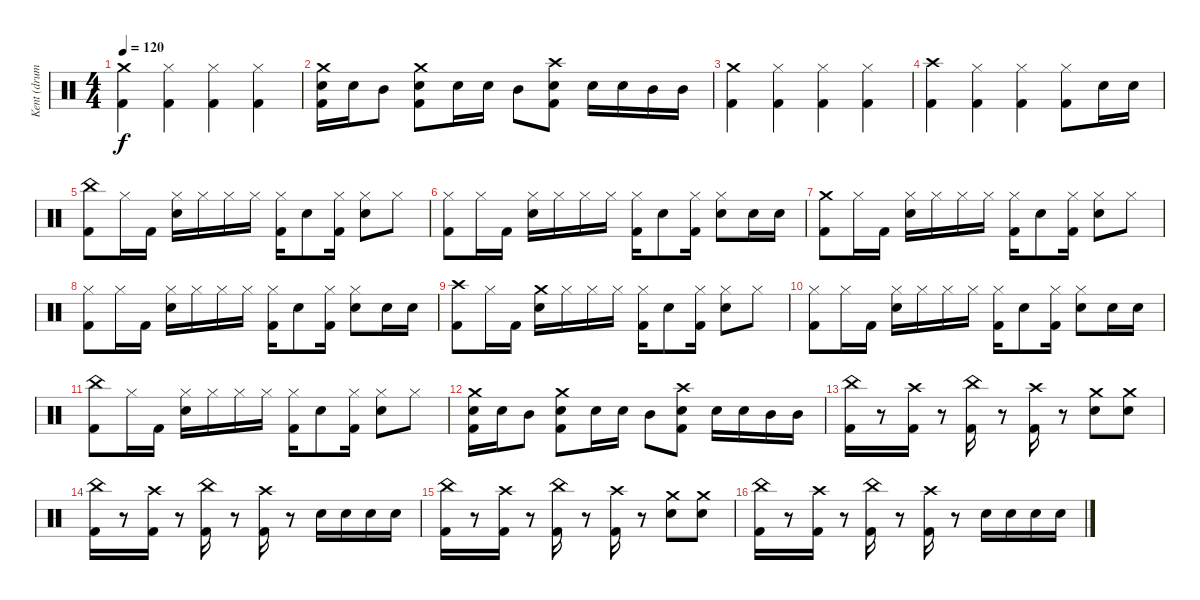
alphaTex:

\track ("Kent (drums)" "Kent (drum") {instrument percussion}
\staff {score}
\articulation defaults
\ts (4 4)
\tempo 120
\clef neutral
\ks c
("Crash medium (hit)" "Kick (hit) 2").4{dy f} ("Hi-Hat (closed)" "Kick (hit) 2").4 ("Hi-Hat (closed)" "Kick (hit) 2").4 ("Hi-Hat (closed)" "Kick (hit) 2").4 |
("Crash medium (hit)" "Snare (hit) 2" "Kick (hit) 2").16 "Snare (hit) 2".16 "Mid Tom (hit)".8 ("Crash medium (hit)" "Snare (hit) 2" "Kick (hit) 2").8 "Snare (hit) 2".16 "Snare (hit) 2".16 "Mid Tom (hit)".8 ("Crash high (hit)" "Snare (hit) 2" "Kick (hit) 2").8 "Snare (hit) 2".16 "Snare (hit) 2".16 "Mid Tom (hit)".16 "Mid Tom (hit)".16 |
("Crash medium (hit)" "Kick (hit) 2").4 ("Hi-Hat (closed)" "Kick (hit) 2").4 ("Hi-Hat (closed)" "Kick (hit) 2").4 ("Hi-Hat (closed)" "Kick (hit) 2").4 |
("Crash high (hit)" "Kick (hit) 2").4 ("Hi-Hat (closed)" "Kick (hit) 2").4 ("Hi-Hat (closed)" "Kick (hit) 2").4 ("Hi-Hat (closed)" "Kick (hit) 2").8 "Snare (hit) 2".16 "Snare (hit) 2".16 |
("China (hit)" "Kick (hit) 2").8 "Hi-Hat (closed)".16 "Kick (hit) 2".16 ("Hi-Hat (closed)" "Snare (hit) 2").16 "Hi-Hat (closed)".16 "Hi-Hat (closed)".16 "Hi-Hat (closed)".16 ("Hi-Hat (closed)" "Kick (hit) 2").16 "Snare (hit) 2".8 ("Hi-Hat (closed)" "Kick (hit) 2").16 ("Hi-Hat (closed)" "Snare (hit) 2").8 "Hi-Hat (closed)".8 |
("Hi-Hat (closed)" "Kick (hit) 2").8 "Hi-Hat (closed)".16 "Kick (hit) 2".16 ("Hi-Hat (closed)" "Snare (hit) 2").16 "Hi-Hat (closed)".16 "Hi-Hat (closed)".16 "Hi-Hat (closed)".16 ("Hi-Hat (closed)" "Kick (hit) 2").16 "Snare (hit) 2".8 ("Hi-Hat (closed)" "Kick (hit) 2").16 ("Hi-Hat (closed)" "Snare (hit) 2").8 "Snare (hit) 2".16 "Snare (hit) 2".16 |
("Crash medium (hit)" "Kick (hit) 2").8 "Hi-Hat (closed)".16 "Kick (hit) 2".16 ("Hi-Hat (closed)" "Snare (hit) 2").16 "Hi-Hat (closed)".16 "Hi-Hat (closed)".16 "Hi-Hat (closed)".16 ("Hi-Hat (closed)" "Kick (hit) 2").16 "Snare (hit) 2".8 ("Hi-Hat (closed)" "Kick (hit) 2").16 ("Hi-Hat (closed)" "Snare (hit) 2").8 "Hi-Hat (closed)".8 |
("Hi-Hat (closed)" "Kick (hit) 2").8 "Hi-Hat (closed)".16 "Kick (hit) 2".16 ("Hi-Hat (closed)" "Snare (hit) 2").16 "Hi-Hat (closed)".16 "Hi-Hat (closed)".16 "Hi-Hat (closed)".16 ("Hi-Hat (closed)" "Kick (hit) 2").16 "Snare (hit) 2".8 ("Hi-Hat (closed)" "Kick (hit) 2").16 ("Hi-Hat (closed)" "Snare (hit) 2").8 "Snare (hit) 2".16 "Snare (hit) 2".16 |
("Crash high (hit)" "Kick (hit) 2").8 "Hi-Hat (closed)".16 "Kick (hit) 2".16 ("Crash medium (hit)" "Snare (hit) 2").16 "Hi-Hat (closed)".16 "Hi-Hat (closed)".16 "Hi-Hat (closed)".16 ("Hi-Hat (closed)" "Kick (hit) 2").16 "Snare (hit) 2".8 ("Hi-Hat (closed)" "Kick (hit) 2").16 ("Hi-Hat (closed)" "Snare (hit) 2").8 "Hi-Hat (closed)".8 |
("Hi-Hat (closed)" "Kick (hit) 2").8 "Hi-Hat (closed)".16 "Kick (hit) 2".16 ("Hi-Hat (closed)" "Snare (hit) 2").16 "Hi-Hat (closed)".16 "Hi-Hat (closed)".16 "Hi-Hat (closed)".16 ("Hi-Hat (closed)" "Kick (hit) 2").16 "Snare (hit) 2".8 ("Hi-Hat (closed)" "Kick (hit) 2").16 ("Hi-Hat (closed)" "Snare (hit) 2").8 "Snare (hit) 2".16 "Snare (hit) 2".16 |
("China (hit)" "Kick (hit) 2").8 "Hi-Hat (closed)".16 "Kick (hit) 2".16 ("Hi-Hat (closed)" "Snare (hit) 2").16 "Hi-Hat (closed)".16 "Hi-Hat (closed)".16 "Hi-Hat (closed)".16 ("Hi-Hat (closed)" "Kick (hit) 2").16 "Snare (hit) 2".8 ("Hi-Hat (closed)" "Kick (hit) 2").16 ("Hi-Hat (closed)" "Snare (hit) 2").8 "Hi-Hat (closed)".8 |
("Crash medium (hit)" "Snare (hit) 2" "Kick (hit) 2").16 "Snare (hit) 2".16 "Mid Tom (hit)".8 ("Crash medium (hit)" "Snare (hit) 2" "Kick (hit) 2").8 "Snare (hit) 2".16 "Snare (hit) 2".16 "Mid Tom (hit)".8 ("Crash high (hit)" "Snare (hit) 2" "Kick (hit) 2").8 "Snare (hit) 2".16 "Snare (hit) 2".16 "Mid Tom (hit)".16 "Mid Tom (hit)".16 |
("China (hit)" "Kick (hit) 2").16 r.8 ("Crash high (hit)" "Kick (hit) 2").16 r.8 ("China (hit)" "Kick (hit) 2").16 r.8 ("Crash high (hit)" "Kick (hit) 2").16 r.8 ("Crash medium (hit)" "Snare (hit) 2").8 ("Crash medium (hit)" "Snare (hit) 2").8 |
("China (hit)" "Kick (hit) 2").16 r.8 ("Crash high (hit)" "Kick (hit) 2").16 r.8 ("China (hit)" "Kick (hit) 2").16 r.8 ("Crash high (hit)" "Kick (hit) 2").16 r.8 "Snare (hit) 2".16 "Snare (hit) 2".16 "Snare (hit) 2".16 "Snare (hit) 2".16 |
("China (hit)" "Kick (hit) 2").16 r.8 ("Crash high (hit)" "Kick (hit) 2").16 r.8 ("China (hit)" "Kick (hit) 2").16 r.8 ("Crash high (hit)" "Kick (hit) 2").16 r.8 ("Crash medium (hit)" "Snare (hit) 2").8 ("Crash medium (hit)" "Snare (hit) 2").8 |
("China (hit)" "Kick (hit) 2").16 r.8 ("Crash high (hit)" "Kick (hit) 2").16 r.8 ("China (hit)" "Kick (hit) 2").16 r.8 ("Crash high (hit)" "Kick (hit) 2").16 r.8 "Snare (hit) 2".16 "Snare (hit) 2".16 "Snare (hit) 2".16 "Snare (hit) 2".16
